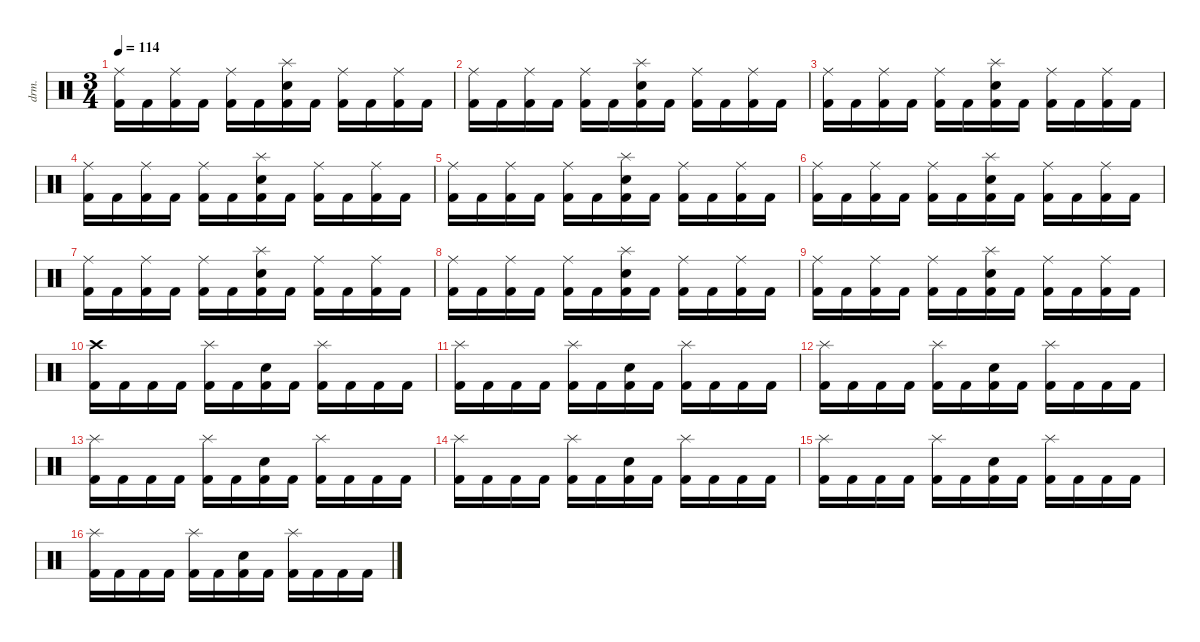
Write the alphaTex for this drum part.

\defaultSystemsLayout 4
\hideDynamics
\bracketExtendMode nobrackets
\otherSystemsTrackNameOrientation horizontal
\track ("Drums" "drm.") {instrument percussion}
\staff {score}
\articulation defaults
\ts (3 4)
\tempo 114
\clef neutral
\ks c
("Ride (middle)" "Kick (hit) 2").16{dy f} "Kick (hit) 2".16 ("Ride (middle)" "Kick (hit) 2").16 "Kick (hit) 2".16 ("Ride (middle)" "Kick (hit) 2").16 "Kick (hit) 2".16 ("Splash (hit)" "Snare (hit) 2" "Kick (hit) 2").16 "Kick (hit) 2".16 ("Ride (middle)" "Kick (hit) 2").16 "Kick (hit) 2".16 ("Ride (middle)" "Kick (hit) 2").16 "Kick (hit) 2".16 |
("Ride (middle)" "Kick (hit) 2").16 "Kick (hit) 2".16 ("Ride (middle)" "Kick (hit) 2").16 "Kick (hit) 2".16 ("Ride (middle)" "Kick (hit) 2").16 "Kick (hit) 2".16 ("Splash (hit)" "Snare (hit) 2" "Kick (hit) 2").16 "Kick (hit) 2".16 ("Ride (middle)" "Kick (hit) 2").16 "Kick (hit) 2".16 ("Ride (middle)" "Kick (hit) 2").16 "Kick (hit) 2".16 |
("Ride (middle)" "Kick (hit) 2").16 "Kick (hit) 2".16 ("Ride (middle)" "Kick (hit) 2").16 "Kick (hit) 2".16 ("Ride (middle)" "Kick (hit) 2").16 "Kick (hit) 2".16 ("Splash (hit)" "Snare (hit) 2" "Kick (hit) 2").16 "Kick (hit) 2".16 ("Ride (middle)" "Kick (hit) 2").16 "Kick (hit) 2".16 ("Ride (middle)" "Kick (hit) 2").16 "Kick (hit) 2".16 |
("Ride (middle)" "Kick (hit) 2").16 "Kick (hit) 2".16 ("Ride (middle)" "Kick (hit) 2").16 "Kick (hit) 2".16 ("Ride (middle)" "Kick (hit) 2").16 "Kick (hit) 2".16 ("Splash (hit)" "Snare (hit) 2" "Kick (hit) 2").16 "Kick (hit) 2".16 ("Ride (middle)" "Kick (hit) 2").16 "Kick (hit) 2".16 ("Ride (middle)" "Kick (hit) 2").16 "Kick (hit) 2".16 |
("Ride (middle)" "Kick (hit) 2").16 "Kick (hit) 2".16 ("Ride (middle)" "Kick (hit) 2").16 "Kick (hit) 2".16 ("Ride (middle)" "Kick (hit) 2").16 "Kick (hit) 2".16 ("Splash (hit)" "Snare (hit) 2" "Kick (hit) 2").16 "Kick (hit) 2".16 ("Ride (middle)" "Kick (hit) 2").16 "Kick (hit) 2".16 ("Ride (middle)" "Kick (hit) 2").16 "Kick (hit) 2".16 |
("Ride (middle)" "Kick (hit) 2").16 "Kick (hit) 2".16 ("Ride (middle)" "Kick (hit) 2").16 "Kick (hit) 2".16 ("Ride (middle)" "Kick (hit) 2").16 "Kick (hit) 2".16 ("Splash (hit)" "Snare (hit) 2" "Kick (hit) 2").16 "Kick (hit) 2".16 ("Ride (middle)" "Kick (hit) 2").16 "Kick (hit) 2".16 ("Ride (middle)" "Kick (hit) 2").16 "Kick (hit) 2".16 |
("Ride (middle)" "Kick (hit) 2").16 "Kick (hit) 2".16 ("Ride (middle)" "Kick (hit) 2").16 "Kick (hit) 2".16 ("Ride (middle)" "Kick (hit) 2").16 "Kick (hit) 2".16 ("Splash (hit)" "Snare (hit) 2" "Kick (hit) 2").16 "Kick (hit) 2".16 ("Ride (middle)" "Kick (hit) 2").16 "Kick (hit) 2".16 ("Ride (middle)" "Kick (hit) 2").16 "Kick (hit) 2".16 |
("Ride (middle)" "Kick (hit) 2").16 "Kick (hit) 2".16 ("Ride (middle)" "Kick (hit) 2").16 "Kick (hit) 2".16 ("Ride (middle)" "Kick (hit) 2").16 "Kick (hit) 2".16 ("Splash (hit)" "Snare (hit) 2" "Kick (hit) 2").16 "Kick (hit) 2".16 ("Ride (middle)" "Kick (hit) 2").16 "Kick (hit) 2".16 ("Ride (middle)" "Kick (hit) 2").16 "Kick (hit) 2".16 |
("Ride (middle)" "Kick (hit) 2").16 "Kick (hit) 2".16 ("Ride (middle)" "Kick (hit) 2").16 "Kick (hit) 2".16 ("Ride (middle)" "Kick (hit) 2").16 "Kick (hit) 2".16 ("Splash (hit)" "Snare (hit) 2" "Kick (hit) 2").16 "Kick (hit) 2".16 ("Ride (middle)" "Kick (hit) 2").16 "Kick (hit) 2".16 ("Ride (middle)" "Kick (hit) 2").16 "Kick (hit) 2".16 |
("Crash high (hit)" "Kick (hit) 2").16 "Kick (hit) 2".16 "Kick (hit) 2".16 "Kick (hit) 2".16 ("Splash (hit)" "Kick (hit) 2").16 "Kick (hit) 2".16 ("Snare (hit) 2" "Kick (hit) 2").16 "Kick (hit) 2".16 ("Splash (hit)" "Kick (hit) 2").16 "Kick (hit) 2".16 "Kick (hit) 2".16 "Kick (hit) 2".16 |
("Splash (hit)" "Kick (hit) 2").16 "Kick (hit) 2".16 "Kick (hit) 2".16 "Kick (hit) 2".16 ("Splash (hit)" "Kick (hit) 2").16 "Kick (hit) 2".16 ("Snare (hit) 2" "Kick (hit) 2").16 "Kick (hit) 2".16 ("Splash (hit)" "Kick (hit) 2").16 "Kick (hit) 2".16 "Kick (hit) 2".16 "Kick (hit) 2".16 |
("Splash (hit)" "Kick (hit) 2").16 "Kick (hit) 2".16 "Kick (hit) 2".16 "Kick (hit) 2".16 ("Splash (hit)" "Kick (hit) 2").16 "Kick (hit) 2".16 ("Snare (hit) 2" "Kick (hit) 2").16 "Kick (hit) 2".16 ("Splash (hit)" "Kick (hit) 2").16 "Kick (hit) 2".16 "Kick (hit) 2".16 "Kick (hit) 2".16 |
("Splash (hit)" "Kick (hit) 2").16 "Kick (hit) 2".16 "Kick (hit) 2".16 "Kick (hit) 2".16 ("Splash (hit)" "Kick (hit) 2").16 "Kick (hit) 2".16 ("Snare (hit) 2" "Kick (hit) 2").16 "Kick (hit) 2".16 ("Splash (hit)" "Kick (hit) 2").16 "Kick (hit) 2".16 "Kick (hit) 2".16 "Kick (hit) 2".16 |
("Splash (hit)" "Kick (hit) 2").16 "Kick (hit) 2".16 "Kick (hit) 2".16 "Kick (hit) 2".16 ("Splash (hit)" "Kick (hit) 2").16 "Kick (hit) 2".16 ("Snare (hit) 2" "Kick (hit) 2").16 "Kick (hit) 2".16 ("Splash (hit)" "Kick (hit) 2").16 "Kick (hit) 2".16 "Kick (hit) 2".16 "Kick (hit) 2".16 |
("Splash (hit)" "Kick (hit) 2").16 "Kick (hit) 2".16 "Kick (hit) 2".16 "Kick (hit) 2".16 ("Splash (hit)" "Kick (hit) 2").16 "Kick (hit) 2".16 ("Snare (hit) 2" "Kick (hit) 2").16 "Kick (hit) 2".16 ("Splash (hit)" "Kick (hit) 2").16 "Kick (hit) 2".16 "Kick (hit) 2".16 "Kick (hit) 2".16 |
("Splash (hit)" "Kick (hit) 2").16 "Kick (hit) 2".16 "Kick (hit) 2".16 "Kick (hit) 2".16 ("Splash (hit)" "Kick (hit) 2").16 "Kick (hit) 2".16 ("Snare (hit) 2" "Kick (hit) 2").16 "Kick (hit) 2".16 ("Splash (hit)" "Kick (hit) 2").16 "Kick (hit) 2".16 "Kick (hit) 2".16 "Kick (hit) 2".16
